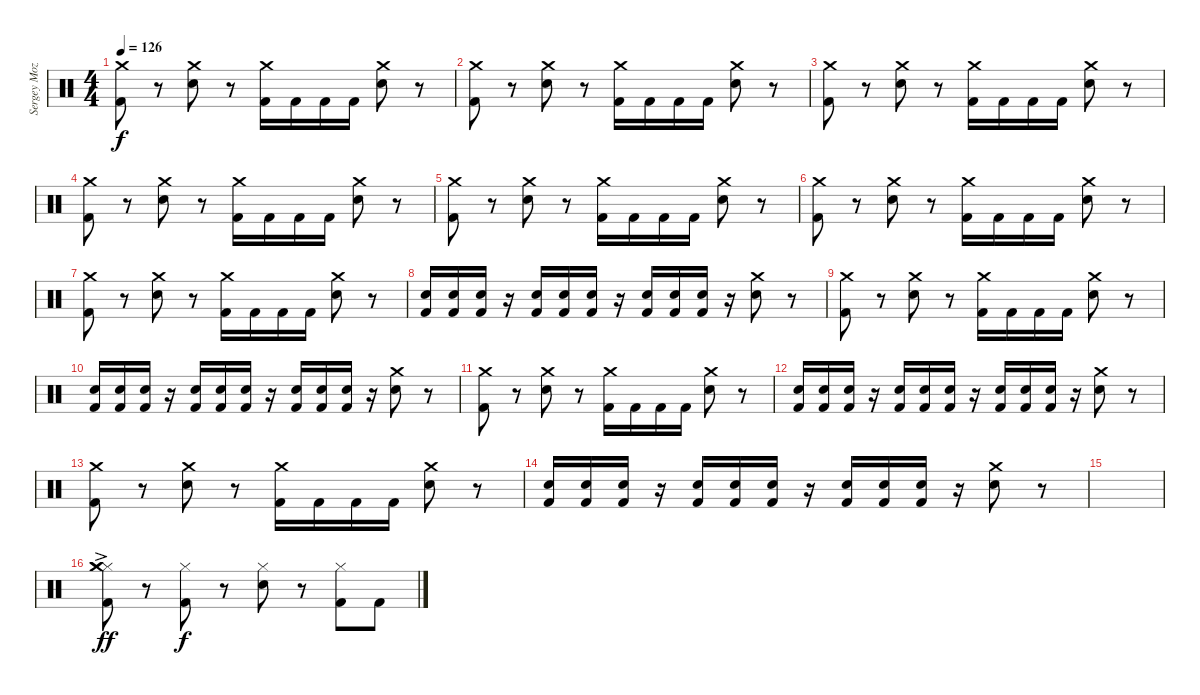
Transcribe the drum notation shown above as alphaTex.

\track ("Sergey Mozalev" "Sergey Moz") {instrument percussion}
\staff {score}
\articulation defaults
\ts (4 4)
\tempo 126
\clef neutral
\ks c
("Crash medium (hit)" "Kick (hit) 2").8{dy f} r.8 ("Crash medium (hit)" "Electric Snare (hit)").8 r.8 ("Crash medium (hit)" "Kick (hit) 2").16 "Kick (hit) 2".16 "Kick (hit) 2".16 "Kick (hit) 2".16 ("Crash medium (hit)" "Electric Snare (hit)").8 r.8 |
("Crash medium (hit)" "Kick (hit) 2").8 r.8 ("Crash medium (hit)" "Electric Snare (hit)").8 r.8 ("Crash medium (hit)" "Kick (hit) 2").16 "Kick (hit) 2".16 "Kick (hit) 2".16 "Kick (hit) 2".16 ("Crash medium (hit)" "Electric Snare (hit)").8 r.8 |
("Crash medium (hit)" "Kick (hit) 2").8 r.8 ("Crash medium (hit)" "Electric Snare (hit)").8 r.8 ("Crash medium (hit)" "Kick (hit) 2").16 "Kick (hit) 2".16 "Kick (hit) 2".16 "Kick (hit) 2".16 ("Crash medium (hit)" "Electric Snare (hit)").8 r.8 |
("Crash medium (hit)" "Kick (hit) 2").8 r.8 ("Crash medium (hit)" "Electric Snare (hit)").8 r.8 ("Crash medium (hit)" "Kick (hit) 2").16 "Kick (hit) 2".16 "Kick (hit) 2".16 "Kick (hit) 2".16 ("Crash medium (hit)" "Electric Snare (hit)").8 r.8 |
("Crash medium (hit)" "Kick (hit) 2").8 r.8 ("Crash medium (hit)" "Electric Snare (hit)").8 r.8 ("Crash medium (hit)" "Kick (hit) 2").16 "Kick (hit) 2".16 "Kick (hit) 2".16 "Kick (hit) 2".16 ("Crash medium (hit)" "Electric Snare (hit)").8 r.8 |
("Crash medium (hit)" "Kick (hit) 2").8 r.8 ("Crash medium (hit)" "Electric Snare (hit)").8 r.8 ("Crash medium (hit)" "Kick (hit) 2").16 "Kick (hit) 2".16 "Kick (hit) 2".16 "Kick (hit) 2".16 ("Crash medium (hit)" "Electric Snare (hit)").8 r.8 |
("Crash medium (hit)" "Kick (hit) 2").8 r.8 ("Crash medium (hit)" "Electric Snare (hit)").8 r.8 ("Crash medium (hit)" "Kick (hit) 2").16 "Kick (hit) 2".16 "Kick (hit) 2".16 "Kick (hit) 2".16 ("Crash medium (hit)" "Electric Snare (hit)").8 r.8 |
("Electric Snare (hit)" "Kick (hit) 2").16 ("Electric Snare (hit)" "Kick (hit) 2").16 ("Electric Snare (hit)" "Kick (hit) 2").16 r.16 ("Electric Snare (hit)" "Kick (hit) 2").16 ("Electric Snare (hit)" "Kick (hit) 2").16 ("Electric Snare (hit)" "Kick (hit) 2").16 r.16 ("Electric Snare (hit)" "Kick (hit) 2").16 ("Electric Snare (hit)" "Kick (hit) 2").16 ("Electric Snare (hit)" "Kick (hit) 2").16 r.16 ("Electric Snare (hit)" "Crash medium (hit)").8 r.8 |
("Crash medium (hit)" "Kick (hit) 2").8 r.8 ("Crash medium (hit)" "Electric Snare (hit)").8 r.8 ("Crash medium (hit)" "Kick (hit) 2").16 "Kick (hit) 2".16 "Kick (hit) 2".16 "Kick (hit) 2".16 ("Crash medium (hit)" "Electric Snare (hit)").8 r.8 |
("Electric Snare (hit)" "Kick (hit) 2").16 ("Electric Snare (hit)" "Kick (hit) 2").16 ("Electric Snare (hit)" "Kick (hit) 2").16 r.16 ("Electric Snare (hit)" "Kick (hit) 2").16 ("Electric Snare (hit)" "Kick (hit) 2").16 ("Electric Snare (hit)" "Kick (hit) 2").16 r.16 ("Electric Snare (hit)" "Kick (hit) 2").16 ("Electric Snare (hit)" "Kick (hit) 2").16 ("Electric Snare (hit)" "Kick (hit) 2").16 r.16 ("Electric Snare (hit)" "Crash medium (hit)").8 r.8 |
("Crash medium (hit)" "Kick (hit) 2").8 r.8 ("Crash medium (hit)" "Electric Snare (hit)").8 r.8 ("Crash medium (hit)" "Kick (hit) 2").16 "Kick (hit) 2".16 "Kick (hit) 2".16 "Kick (hit) 2".16 ("Crash medium (hit)" "Electric Snare (hit)").8 r.8 |
("Electric Snare (hit)" "Kick (hit) 2").16 ("Electric Snare (hit)" "Kick (hit) 2").16 ("Electric Snare (hit)" "Kick (hit) 2").16 r.16 ("Electric Snare (hit)" "Kick (hit) 2").16 ("Electric Snare (hit)" "Kick (hit) 2").16 ("Electric Snare (hit)" "Kick (hit) 2").16 r.16 ("Electric Snare (hit)" "Kick (hit) 2").16 ("Electric Snare (hit)" "Kick (hit) 2").16 ("Electric Snare (hit)" "Kick (hit) 2").16 r.16 ("Electric Snare (hit)" "Crash medium (hit)").8 r.8 |
("Crash medium (hit)" "Kick (hit) 2").8 r.8 ("Crash medium (hit)" "Electric Snare (hit)").8 r.8 ("Crash medium (hit)" "Kick (hit) 2").16 "Kick (hit) 2".16 "Kick (hit) 2".16 "Kick (hit) 2".16 ("Crash medium (hit)" "Electric Snare (hit)").8 r.8 |
("Electric Snare (hit)" "Kick (hit) 2").16 ("Electric Snare (hit)" "Kick (hit) 2").16 ("Electric Snare (hit)" "Kick (hit) 2").16 r.16 ("Electric Snare (hit)" "Kick (hit) 2").16 ("Electric Snare (hit)" "Kick (hit) 2").16 ("Electric Snare (hit)" "Kick (hit) 2").16 r.16 ("Electric Snare (hit)" "Kick (hit) 2").16 ("Electric Snare (hit)" "Kick (hit) 2").16 ("Electric Snare (hit)" "Kick (hit) 2").16 r.16 ("Electric Snare (hit)" "Crash medium (hit)").8 r.8 |
|
("Hi-Hat (closed)" "Crash medium (hit)"{ac} "Crash medium (hit)"{ac} "Kick (hit) 2").8{dy ff} r.8 ("Hi-Hat (closed)" "Kick (hit) 2").8{dy f} r.8 ("Hi-Hat (closed)" "Electric Snare (hit)").8 r.8 ("Hi-Hat (closed)" "Kick (hit) 2").8 "Kick (hit) 2".8
